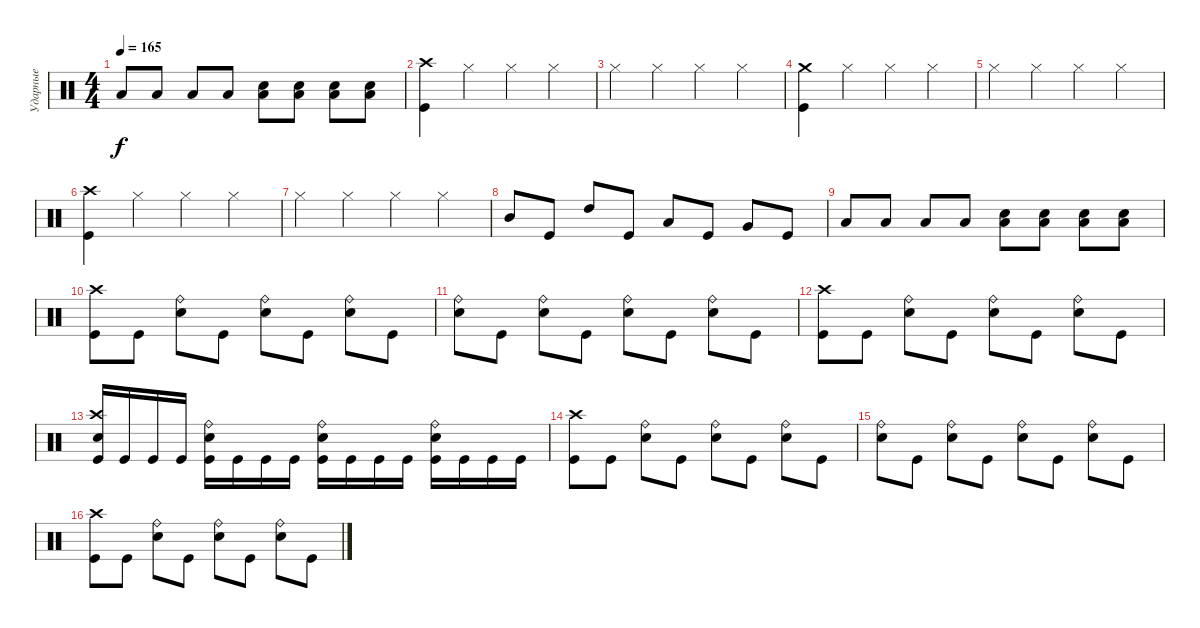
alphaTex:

\track ("Ударные" "Ударные") {instrument percussion}
\staff {score}
\articulation defaults
\ts (4 4)
\tempo 165
\clef neutral
\ks c "Low Tom (hit)".8{dy f} "Low Tom (hit)".8 "Low Tom (hit)".8 "Low Tom (hit)".8
("Electric Snare (hit)" "Low Tom (hit)").8 ("Electric Snare (hit)" "Low Tom (hit)").8 ("Electric Snare (hit)" "Low Tom (hit)").8 ("Electric Snare (hit)" "Low Tom (hit)").8 |
("Crash high (hit)" "Kick (hit)").4 "Hi-Hat (closed)".4 "Hi-Hat (closed)".4 "Hi-Hat (closed)".4 |
"Hi-Hat (closed)".4 "Hi-Hat (closed)".4 "Hi-Hat (closed)".4 "Hi-Hat (closed)".4 |
("Crash medium (hit)" "Kick (hit)").4 "Hi-Hat (closed)".4 "Hi-Hat (closed)".4 "Hi-Hat (closed)".4 |
"Hi-Hat (closed)".4 "Hi-Hat (closed)".4 "Hi-Hat (closed)".4 "Hi-Hat (closed)".4 |
("Crash high (hit)" "Kick (hit)").4 "Hi-Hat (closed)".4 "Hi-Hat (closed)".4 "Hi-Hat (closed)".4 |
"Hi-Hat (closed)".4 "Hi-Hat (closed)".4 "Hi-Hat (closed)".4 "Hi-Hat (closed)".4 |
"Mid Tom (hit)".8 "Kick (hit)".8 "High Tom (hit)".8 "Kick (hit)".8 "Low Tom (hit)".8 "Kick (hit)".8 "Very Low Tom (hit)".8 "Kick (hit)".8 |
"Low Tom (hit)".8 "Low Tom (hit)".8 "Low Tom (hit)".8 "Low Tom (hit)".8 ("Electric Snare (hit)" "Low Tom (hit)").8 ("Electric Snare (hit)" "Low Tom (hit)").8 ("Electric Snare (hit)" "Low Tom (hit)").8 ("Electric Snare (hit)" "Low Tom (hit)").8 |
("Crash high (hit)" "Kick (hit)").8 "Kick (hit)".8 ("Ride (bell)" "Electric Snare (hit)").8 "Kick (hit)".8 ("Ride (bell)" "Electric Snare (hit)").8 "Kick (hit)".8 ("Ride (bell)" "Electric Snare (hit)").8 "Kick (hit)".8 |
("Ride (bell)" "Electric Snare (hit)").8 "Kick (hit)".8 ("Ride (bell)" "Electric Snare (hit)").8 "Kick (hit)".8 ("Ride (bell)" "Electric Snare (hit)").8 "Kick (hit)".8 ("Ride (bell)" "Electric Snare (hit)").8 "Kick (hit)".8 |
("Crash high (hit)" "Kick (hit)").8 "Kick (hit)".8 ("Ride (bell)" "Electric Snare (hit)").8 "Kick (hit)".8 ("Ride (bell)" "Electric Snare (hit)").8 "Kick (hit)".8 ("Ride (bell)" "Electric Snare (hit)").8 "Kick (hit)".8 |
("Crash high (hit)" "Electric Snare (hit)" "Kick (hit)").16 "Kick (hit)".16 "Kick (hit)".16 "Kick (hit)".16 ("Ride (bell)" "Electric Snare (hit)" "Kick (hit)").16 "Kick (hit)".16 "Kick (hit)".16 "Kick (hit)".16 ("Ride (bell)" "Electric Snare (hit)" "Kick (hit)").16 "Kick (hit)".16 "Kick (hit)".16 "Kick (hit)".16 ("Ride (bell)" "Electric Snare (hit)" "Kick (hit)").16 "Kick (hit)".16 "Kick (hit)".16 "Kick (hit)".16 |
("Crash high (hit)" "Kick (hit)").8 "Kick (hit)".8 ("Ride (bell)" "Electric Snare (hit)").8 "Kick (hit)".8 ("Ride (bell)" "Electric Snare (hit)").8 "Kick (hit)".8 ("Ride (bell)" "Electric Snare (hit)").8 "Kick (hit)".8 |
("Ride (bell)" "Electric Snare (hit)").8 "Kick (hit)".8 ("Ride (bell)" "Electric Snare (hit)").8 "Kick (hit)".8 ("Ride (bell)" "Electric Snare (hit)").8 "Kick (hit)".8 ("Ride (bell)" "Electric Snare (hit)").8 "Kick (hit)".8 |
("Crash high (hit)" "Kick (hit)").8 "Kick (hit)".8 ("Ride (bell)" "Electric Snare (hit)").8 "Kick (hit)".8 ("Ride (bell)" "Electric Snare (hit)").8 "Kick (hit)".8 ("Ride (bell)" "Electric Snare (hit)").8 "Kick (hit)".8
